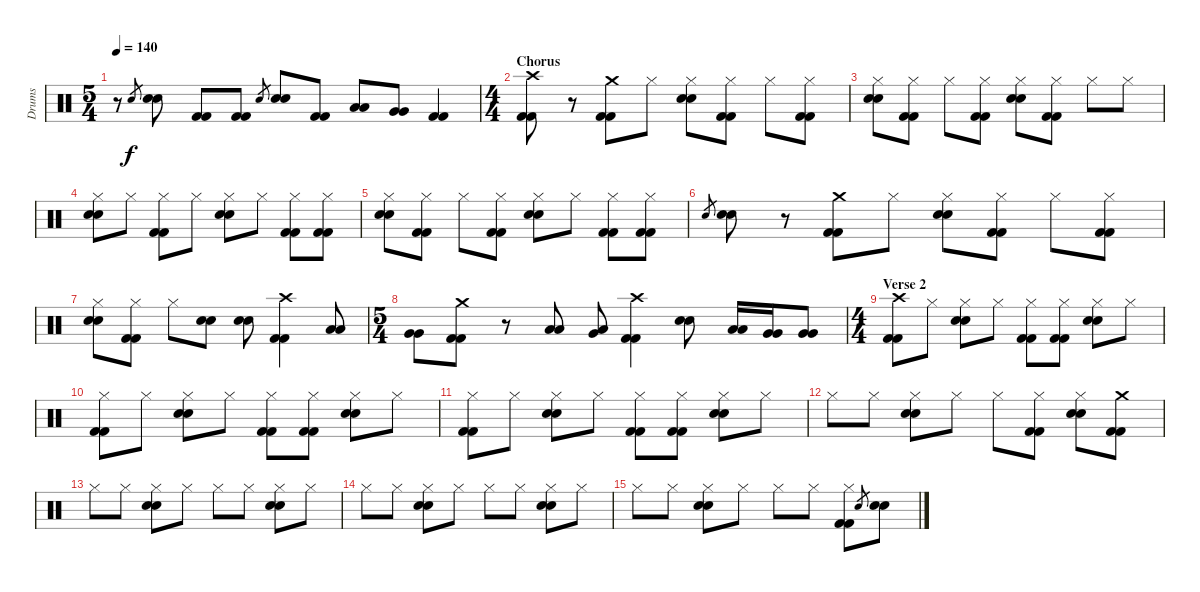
\track ("Drums" "Drums") {instrument percussion}
\staff {score}
\articulation defaults
\ts (5 4)
\tempo 140
\clef neutral
\ks c
r.8{dy f} "Snare (hit) 2".8{gr} ("Snare (hit) 2" "Snare (hit) 2").8 ("Kick (hit) 2" "Kick (hit) 2").8 ("Kick (hit) 2" "Kick (hit) 2").8 "Snare (hit) 2".8{gr} ("Snare (hit) 2" "Snare (hit) 2").8 ("Kick (hit) 2" "Kick (hit) 2").8 ("Low Tom (hit)" "Low Tom (hit)").8 ("Very Low Tom (hit)" "Very Low Tom (hit)").8 ("Kick (hit) 2" "Kick (hit) 2").4 |
\ts (4 4)
\section ("" "Chorus")
("Crash high (hit)" "Kick (hit) 2" "Kick (hit) 2").8 r.8 ("Crash medium (hit)" "Kick (hit) 2" "Kick (hit) 2").8 "Hi-Hat (closed)".8 ("Hi-Hat (closed)" "Snare (hit) 2" "Snare (hit) 2").8 ("Hi-Hat (closed)" "Kick (hit) 2" "Kick (hit) 2").8 "Hi-Hat (closed)".8 ("Hi-Hat (closed)" "Kick (hit) 2" "Kick (hit) 2").8 |
("Hi-Hat (closed)" "Snare (hit) 2" "Snare (hit) 2").8 ("Hi-Hat (closed)" "Kick (hit) 2" "Kick (hit) 2").8 "Hi-Hat (closed)".8 ("Hi-Hat (closed)" "Kick (hit) 2" "Kick (hit) 2").8 ("Hi-Hat (closed)" "Snare (hit) 2" "Snare (hit) 2").8 ("Hi-Hat (closed)" "Kick (hit) 2" "Kick (hit) 2").8 "Hi-Hat (closed)".8 "Hi-Hat (closed)".8 |
("Hi-Hat (closed)" "Snare (hit) 2" "Snare (hit) 2").8 "Hi-Hat (closed)".8 ("Hi-Hat (closed)" "Kick (hit) 2" "Kick (hit) 2").8 "Hi-Hat (closed)".8 ("Hi-Hat (closed)" "Snare (hit) 2" "Snare (hit) 2").8 "Hi-Hat (closed)".8 ("Hi-Hat (closed)" "Kick (hit) 2" "Kick (hit) 2").8 ("Hi-Hat (closed)" "Kick (hit) 2" "Kick (hit) 2").8 |
("Hi-Hat (closed)" "Snare (hit) 2" "Snare (hit) 2").8 ("Hi-Hat (closed)" "Kick (hit) 2" "Kick (hit) 2").8 "Hi-Hat (closed)".8 ("Hi-Hat (closed)" "Kick (hit) 2" "Kick (hit) 2").8 ("Hi-Hat (closed)" "Snare (hit) 2" "Snare (hit) 2").8 "Hi-Hat (closed)".8 ("Hi-Hat (closed)" "Kick (hit) 2" "Kick (hit) 2").8 ("Hi-Hat (closed)" "Kick (hit) 2" "Kick (hit) 2").8 |
"Snare (hit) 2".8{gr} ("Snare (hit) 2" "Snare (hit) 2").8 r.8 ("Crash medium (hit)" "Kick (hit) 2" "Kick (hit) 2").8 "Hi-Hat (closed)".8 ("Hi-Hat (closed)" "Snare (hit) 2" "Snare (hit) 2").8 ("Hi-Hat (closed)" "Kick (hit) 2" "Kick (hit) 2").8 "Hi-Hat (closed)".8 ("Hi-Hat (closed)" "Kick (hit) 2" "Kick (hit) 2").8 |
("Hi-Hat (closed)" "Snare (hit) 2" "Snare (hit) 2").8 ("Hi-Hat (closed)" "Kick (hit) 2" "Kick (hit) 2").8 "Hi-Hat (closed)".8 ("Snare (hit) 2" "Snare (hit) 2").8 ("Snare (hit) 2" "Snare (hit) 2").8 ("Crash high (hit)" "Kick (hit) 2" "Kick (hit) 2").4 ("Low Tom (hit)" "Low Tom (hit)").8 |
\ts (5 4)
("Very Low Tom (hit)" "Very Low Tom (hit)").8 ("Crash medium (hit)" "Kick (hit) 2" "Kick (hit) 2").8 r.8 ("Low Tom (hit)" "Low Tom (hit)").8 ("Very Low Tom (hit)" "Low Tom (hit)").8 ("Crash high (hit)" "Kick (hit) 2" "Kick (hit) 2").4 ("Snare (hit) 2" "Snare (hit) 2").8 ("Low Tom (hit)" "Low Tom (hit)").16 ("Very Low Tom (hit)" "Very Low Tom (hit)").16 ("Very Low Tom (hit)" "Very Low Tom (hit)").8 |
\ts (4 4)
\section ("" "Verse 2")
("Crash high (hit)" "Kick (hit) 2" "Kick (hit) 2").8 "Hi-Hat (closed)".8 ("Hi-Hat (closed)" "Snare (hit) 2" "Snare (hit) 2").8 "Hi-Hat (closed)".8 ("Hi-Hat (closed)" "Kick (hit) 2" "Kick (hit) 2").8 ("Hi-Hat (closed)" "Kick (hit) 2" "Kick (hit) 2").8 ("Hi-Hat (closed)" "Snare (hit) 2" "Snare (hit) 2").8 "Hi-Hat (closed)".8 |
("Hi-Hat (closed)" "Kick (hit) 2" "Kick (hit) 2").8 "Hi-Hat (closed)".8 ("Hi-Hat (closed)" "Snare (hit) 2" "Snare (hit) 2").8 "Hi-Hat (closed)".8 ("Hi-Hat (closed)" "Kick (hit) 2" "Kick (hit) 2").8 ("Hi-Hat (closed)" "Kick (hit) 2" "Kick (hit) 2").8 ("Hi-Hat (closed)" "Snare (hit) 2" "Snare (hit) 2").8 "Hi-Hat (closed)".8 |
("Hi-Hat (closed)" "Kick (hit) 2" "Kick (hit) 2").8 "Hi-Hat (closed)".8 ("Hi-Hat (closed)" "Snare (hit) 2" "Snare (hit) 2").8 "Hi-Hat (closed)".8 ("Hi-Hat (closed)" "Kick (hit) 2" "Kick (hit) 2").8 ("Hi-Hat (closed)" "Kick (hit) 2" "Kick (hit) 2").8 ("Hi-Hat (closed)" "Snare (hit) 2" "Snare (hit) 2").8 "Hi-Hat (closed)".8 |
"Hi-Hat (closed)".8 "Hi-Hat (closed)".8 ("Hi-Hat (closed)" "Snare (hit) 2" "Snare (hit) 2").8 "Hi-Hat (closed)".8 "Hi-Hat (closed)".8 ("Hi-Hat (closed)" "Kick (hit) 2" "Kick (hit) 2").8 ("Hi-Hat (closed)" "Snare (hit) 2" "Snare (hit) 2").8 ("Crash medium (hit)" "Kick (hit) 2" "Kick (hit) 2").8 |
"Hi-Hat (closed)".8 "Hi-Hat (closed)".8 ("Hi-Hat (closed)" "Snare (hit) 2" "Snare (hit) 2").8 "Hi-Hat (closed)".8 "Hi-Hat (closed)".8 "Hi-Hat (closed)".8 ("Hi-Hat (closed)" "Snare (hit) 2" "Snare (hit) 2").8 "Hi-Hat (closed)".8 |
"Hi-Hat (closed)".8 "Hi-Hat (closed)".8 ("Hi-Hat (closed)" "Snare (hit) 2" "Snare (hit) 2").8 "Hi-Hat (closed)".8 "Hi-Hat (closed)".8 "Hi-Hat (closed)".8 ("Hi-Hat (closed)" "Snare (hit) 2" "Snare (hit) 2").8 "Hi-Hat (closed)".8 |
"Hi-Hat (closed)".8 "Hi-Hat (closed)".8 ("Hi-Hat (closed)" "Snare (hit) 2" "Snare (hit) 2").8 "Hi-Hat (closed)".8 "Hi-Hat (closed)".8 "Hi-Hat (closed)".8 ("Hi-Hat (closed)" "Kick (hit) 2" "Kick (hit) 2").8 "Snare (hit) 2".8{gr} ("Snare (hit) 2" "Snare (hit) 2").8
